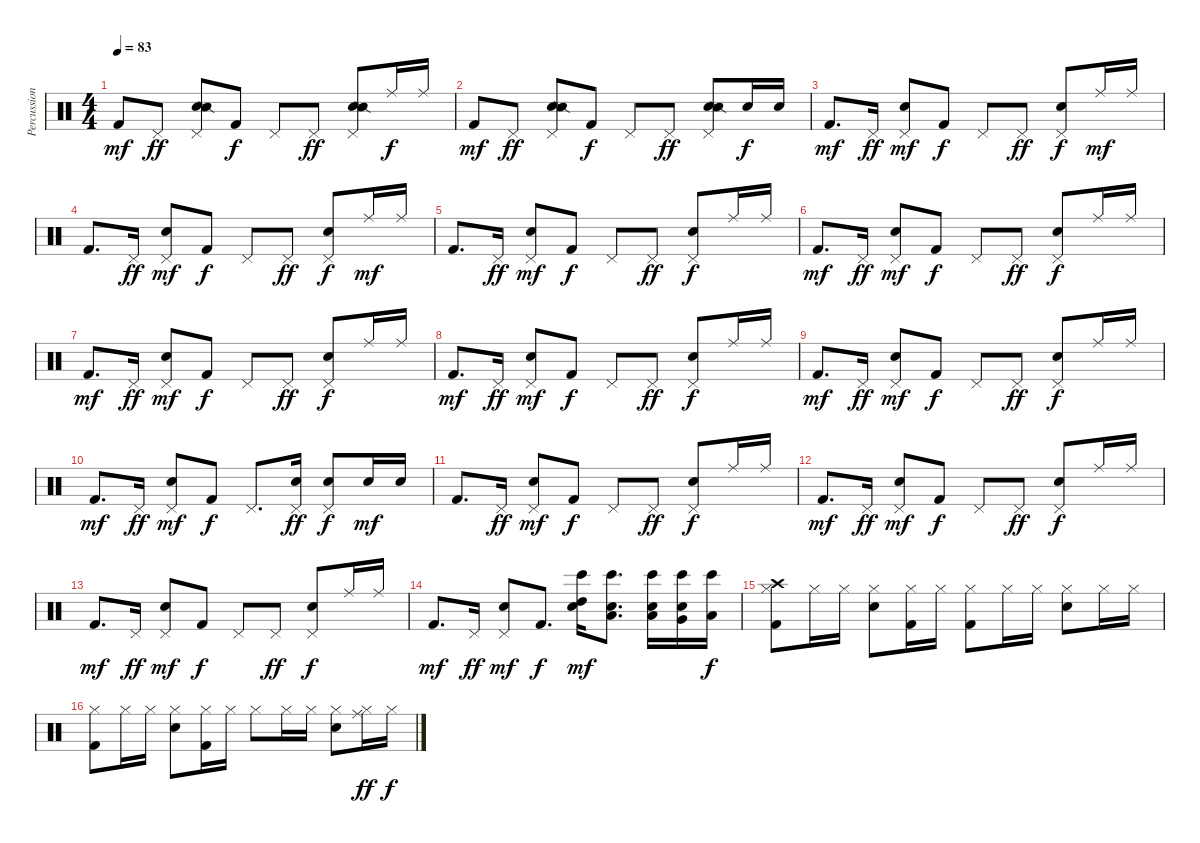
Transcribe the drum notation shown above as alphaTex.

\track ("Percussion" "Percussion") {instrument percussion}
\staff {score}
\articulation defaults
\ts (4 4)
\tempo 83
\clef neutral
\ks c "Kick (hit) 2".8{dy mf} "Pedal Hi-Hat (hit)".8{dy ff}
("Pedal Hi-Hat (hit)" "Hand Clap (hit)" "Snare (side stick) 2").8 "Kick (hit) 2".8{dy f} "Pedal Hi-Hat (hit)".8 "Pedal Hi-Hat (hit)".8{dy ff} ("Pedal Hi-Hat (hit)" "Hand Clap (hit)" "Snare (side stick) 2").8 "Ride (middle)".16{dy f} "Ride (middle)".16 |
"Kick (hit) 2".8{dy mf} "Pedal Hi-Hat (hit)".8{dy ff} ("Pedal Hi-Hat (hit)" "Hand Clap (hit)" "Snare (side stick) 2").8 "Kick (hit) 2".8{dy f} "Pedal Hi-Hat (hit)".8 "Pedal Hi-Hat (hit)".8{dy ff} ("Pedal Hi-Hat (hit)" "Electric Snare (hit)" "Snare (side stick) 2").8 "Electric Snare (hit)".16{dy f} "Electric Snare (hit)".16 |
"Kick (hit) 2".8{d dy mf} "Pedal Hi-Hat (hit)".16{dy ff} ("Pedal Hi-Hat (hit)" "Electric Snare (hit)").8{dy mf} "Kick (hit) 2".8{dy f} "Pedal Hi-Hat (hit)".8 "Pedal Hi-Hat (hit)".8{dy ff} ("Pedal Hi-Hat (hit)" "Electric Snare (hit)").8{dy f} "Ride (middle)".16{dy mf} "Ride (middle)".16 |
"Kick (hit) 2".8{d} "Pedal Hi-Hat (hit)".16{dy ff} ("Pedal Hi-Hat (hit)" "Electric Snare (hit)").8{dy mf} "Kick (hit) 2".8{dy f} "Pedal Hi-Hat (hit)".8 "Pedal Hi-Hat (hit)".8{dy ff} ("Pedal Hi-Hat (hit)" "Electric Snare (hit)").8{dy f} "Ride (middle)".16{dy mf} "Ride (middle)".16 |
"Kick (hit) 2".8{d} "Pedal Hi-Hat (hit)".16{dy ff} ("Pedal Hi-Hat (hit)" "Electric Snare (hit)").8{dy mf} "Kick (hit) 2".8{dy f} "Pedal Hi-Hat (hit)".8 "Pedal Hi-Hat (hit)".8{dy ff} ("Pedal Hi-Hat (hit)" "Electric Snare (hit)").8{dy f} "Ride (middle)".16 "Ride (middle)".16 |
"Kick (hit) 2".8{d dy mf} "Pedal Hi-Hat (hit)".16{dy ff} ("Pedal Hi-Hat (hit)" "Electric Snare (hit)").8{dy mf} "Kick (hit) 2".8{dy f} "Pedal Hi-Hat (hit)".8 "Pedal Hi-Hat (hit)".8{dy ff} ("Pedal Hi-Hat (hit)" "Electric Snare (hit)").8{dy f} "Ride (middle)".16 "Ride (middle)".16 |
"Kick (hit) 2".8{d dy mf} "Pedal Hi-Hat (hit)".16{dy ff} ("Pedal Hi-Hat (hit)" "Electric Snare (hit)").8{dy mf} "Kick (hit) 2".8{dy f} "Pedal Hi-Hat (hit)".8 "Pedal Hi-Hat (hit)".8{dy ff} ("Pedal Hi-Hat (hit)" "Electric Snare (hit)").8{dy f} "Ride (middle)".16 "Ride (middle)".16 |
"Kick (hit) 2".8{d dy mf} "Pedal Hi-Hat (hit)".16{dy ff} ("Pedal Hi-Hat (hit)" "Electric Snare (hit)").8{dy mf} "Kick (hit) 2".8{dy f} "Pedal Hi-Hat (hit)".8 "Pedal Hi-Hat (hit)".8{dy ff} ("Pedal Hi-Hat (hit)" "Electric Snare (hit)").8{dy f} "Ride (middle)".16 "Ride (middle)".16 |
"Kick (hit) 2".8{d dy mf} "Pedal Hi-Hat (hit)".16{dy ff} ("Pedal Hi-Hat (hit)" "Electric Snare (hit)").8{dy mf} "Kick (hit) 2".8{dy f} "Pedal Hi-Hat (hit)".8 "Pedal Hi-Hat (hit)".8{dy ff} ("Pedal Hi-Hat (hit)" "Electric Snare (hit)").8{dy f} "Ride (middle)".16 "Ride (middle)".16 |
"Kick (hit) 2".8{d dy mf} "Pedal Hi-Hat (hit)".16{dy ff} ("Pedal Hi-Hat (hit)" "Electric Snare (hit)").8{dy mf} "Kick (hit) 2".8{dy f} "Pedal Hi-Hat (hit)".8{d} ("Pedal Hi-Hat (hit)" "Hand Clap (hit)").16{dy ff} ("Pedal Hi-Hat (hit)" "Electric Snare (hit)").8{dy f} "Electric Snare (hit)".16{dy mf} "Electric Snare (hit)".16 |
"Kick (hit) 2".8{d} "Pedal Hi-Hat (hit)".16{dy ff} ("Pedal Hi-Hat (hit)" "Electric Snare (hit)").8{dy mf} "Kick (hit) 2".8{dy f} "Pedal Hi-Hat (hit)".8 "Pedal Hi-Hat (hit)".8{dy ff} ("Pedal Hi-Hat (hit)" "Electric Snare (hit)").8{dy f} "Ride (middle)".16 "Ride (middle)".16 |
"Kick (hit) 2".8{d dy mf} "Pedal Hi-Hat (hit)".16{dy ff} ("Pedal Hi-Hat (hit)" "Electric Snare (hit)").8{dy mf} "Kick (hit) 2".8{dy f} "Pedal Hi-Hat (hit)".8 "Pedal Hi-Hat (hit)".8{dy ff} ("Pedal Hi-Hat (hit)" "Electric Snare (hit)").8{dy f} "Ride (middle)".16 "Ride (middle)".16 |
"Kick (hit) 2".8{d dy mf} "Pedal Hi-Hat (hit)".16{dy ff} ("Pedal Hi-Hat (hit)" "Electric Snare (hit)").8{dy mf} "Kick (hit) 2".8{dy f} "Pedal Hi-Hat (hit)".8 "Pedal Hi-Hat (hit)".8{dy ff} ("Pedal Hi-Hat (hit)" "Electric Snare (hit)").8{dy f} "Ride (middle)".16 "Ride (middle)".16 |
"Kick (hit) 2".8{d dy mf} "Pedal Hi-Hat (hit)".16{dy ff} ("Pedal Hi-Hat (hit)" "Electric Snare (hit)").8{dy mf} "Kick (hit) 2".8{d dy f} ("Electric Snare (hit)" "Bongo High (hit)" "High Tom (hit)").16{dy mf} ("Electric Snare (hit)" "Bongo High (hit)" "Low Tom (hit)").8{d} ("Electric Snare (hit)" "Bongo High (hit)" "Low Tom (hit)").16 ("Electric Snare (hit)" "Bongo High (hit)" "Very Low Tom (hit)").16 ("Bongo High (hit)" "Low Floor Tom (hit)").16{dy f} |
("Kick (hit) 2" "Hi-Hat (closed)" "Crash high (hit)").8 "Hi-Hat (closed)".16 "Hi-Hat (closed)".16 ("Hi-Hat (closed)" "Electric Snare (hit)").8 ("Hi-Hat (closed)" "Kick (hit) 2").16 "Hi-Hat (closed)".16 ("Hi-Hat (closed)" "Kick (hit) 2").8 "Hi-Hat (closed)".16 "Hi-Hat (closed)".16 ("Hi-Hat (closed)" "Electric Snare (hit)").8 "Hi-Hat (closed)".16 "Hi-Hat (closed)".16 |
("Hi-Hat (closed)" "Kick (hit) 2").8 "Hi-Hat (closed)".16 "Hi-Hat (closed)".16 ("Hi-Hat (closed)" "Electric Snare (hit)").8 ("Hi-Hat (closed)" "Kick (hit) 2").16 "Hi-Hat (closed)".16 "Hi-Hat (closed)".8 "Hi-Hat (closed)".16 "Hi-Hat (closed)".16 ("Hi-Hat (closed)" "Electric Snare (hit)").8 ("Hi-Hat (closed)" "Ride (middle)").16{dy ff} "Hi-Hat (closed)".16{dy f}
